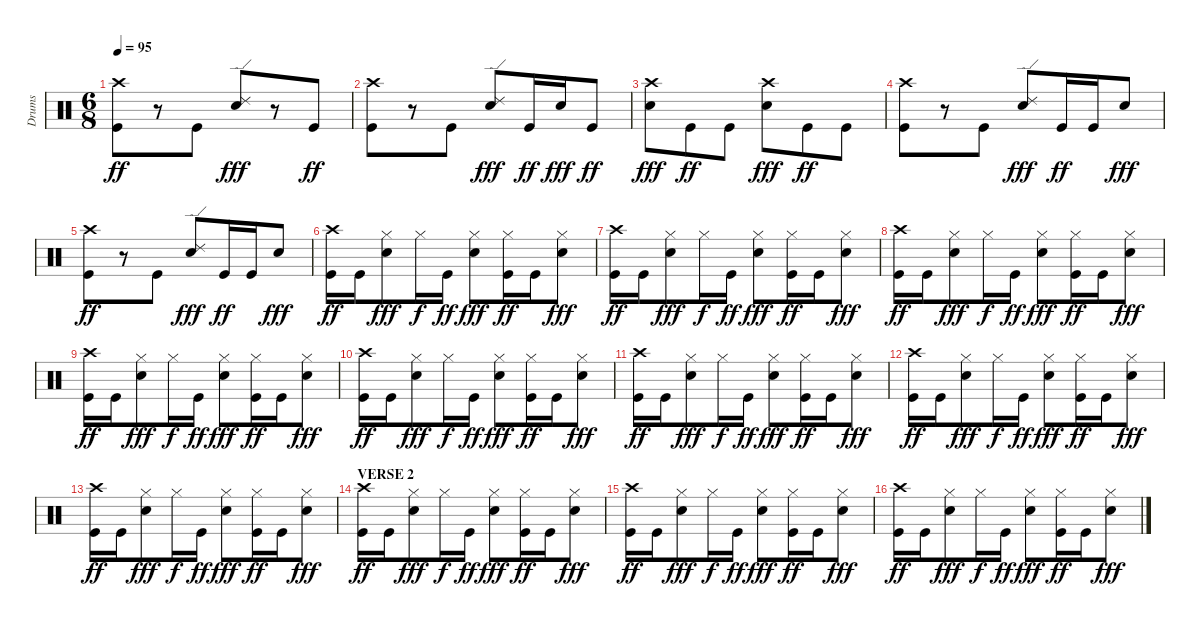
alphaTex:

\track ("Drums" "Drums") {instrument percussion}
\staff {score}
\articulation defaults
\ts (6 8)
\tempo 95
\clef neutral
\ks c
("Crash high (hit)" "Kick (hit)").8{dy ff} r.8 "Kick (hit)".8 ("Ride (edge) 2" "Electric Snare (hit)").8{dy fff} r.8 "Kick (hit)".8{dy ff} |
("Crash high (hit)" "Kick (hit)").8 r.8 "Kick (hit)".8 ("Ride (edge) 2" "Electric Snare (hit)").8{dy fff} "Kick (hit)".16{dy ff} "Electric Snare (hit)".16{dy fff} "Kick (hit)".8{dy ff} |
("Crash high (hit)" "Electric Snare (hit)").8{dy fff} "Kick (hit)".8{dy ff} "Kick (hit)".8 ("Crash high (hit)" "Electric Snare (hit)").8{dy fff} "Kick (hit)".8{dy ff} "Kick (hit)".8 |
("Crash high (hit)" "Kick (hit)").8 r.8 "Kick (hit)".8 ("Ride (edge) 2" "Electric Snare (hit)").8{dy fff} "Kick (hit)".16{dy ff} "Kick (hit)".16 "Electric Snare (hit)".8{dy fff} |
("Crash high (hit)" "Kick (hit)").8{dy ff} r.8 "Kick (hit)".8 ("Ride (edge) 2" "Electric Snare (hit)").8{dy fff} "Kick (hit)".16{dy ff} "Kick (hit)".16 "Electric Snare (hit)".8{dy fff} |
("Crash high (hit)" "Kick (hit)").16{dy ff} "Kick (hit)".16 ("Hi-Hat (closed)" "Electric Snare (hit)").8{dy fff} "Hi-Hat (closed)".16{dy f} "Kick (hit)".16{dy ff} ("Hi-Hat (closed)" "Electric Snare (hit)").8{dy fff} ("Hi-Hat (closed)" "Kick (hit)").16{dy ff} "Kick (hit)".16 ("Hi-Hat (closed)" "Electric Snare (hit)").8{dy fff} |
("Crash high (hit)" "Kick (hit)").16{dy ff} "Kick (hit)".16 ("Hi-Hat (closed)" "Electric Snare (hit)").8{dy fff} "Hi-Hat (closed)".16{dy f} "Kick (hit)".16{dy ff} ("Hi-Hat (closed)" "Electric Snare (hit)").8{dy fff} ("Hi-Hat (closed)" "Kick (hit)").16{dy ff} "Kick (hit)".16 ("Hi-Hat (closed)" "Electric Snare (hit)").8{dy fff} |
("Crash high (hit)" "Kick (hit)").16{dy ff} "Kick (hit)".16 ("Hi-Hat (closed)" "Electric Snare (hit)").8{dy fff} "Hi-Hat (closed)".16{dy f} "Kick (hit)".16{dy ff} ("Hi-Hat (closed)" "Electric Snare (hit)").8{dy fff} ("Hi-Hat (closed)" "Kick (hit)").16{dy ff} "Kick (hit)".16 ("Hi-Hat (closed)" "Electric Snare (hit)").8{dy fff} |
("Crash high (hit)" "Kick (hit)").16{dy ff} "Kick (hit)".16 ("Hi-Hat (closed)" "Electric Snare (hit)").8{dy fff} "Hi-Hat (closed)".16{dy f} "Kick (hit)".16{dy ff} ("Hi-Hat (closed)" "Electric Snare (hit)").8{dy fff} ("Hi-Hat (closed)" "Kick (hit)").16{dy ff} "Kick (hit)".16 ("Hi-Hat (closed)" "Electric Snare (hit)").8{dy fff} |
("Crash high (hit)" "Kick (hit)").16{dy ff} "Kick (hit)".16 ("Hi-Hat (closed)" "Electric Snare (hit)").8{dy fff} "Hi-Hat (closed)".16{dy f} "Kick (hit)".16{dy ff} ("Hi-Hat (closed)" "Electric Snare (hit)").8{dy fff} ("Hi-Hat (closed)" "Kick (hit)").16{dy ff} "Kick (hit)".16 ("Hi-Hat (closed)" "Electric Snare (hit)").8{dy fff} |
("Crash high (hit)" "Kick (hit)").16{dy ff} "Kick (hit)".16 ("Hi-Hat (closed)" "Electric Snare (hit)").8{dy fff} "Hi-Hat (closed)".16{dy f} "Kick (hit)".16{dy ff} ("Hi-Hat (closed)" "Electric Snare (hit)").8{dy fff} ("Hi-Hat (closed)" "Kick (hit)").16{dy ff} "Kick (hit)".16 ("Hi-Hat (closed)" "Electric Snare (hit)").8{dy fff} |
("Crash high (hit)" "Kick (hit)").16{dy ff} "Kick (hit)".16 ("Hi-Hat (closed)" "Electric Snare (hit)").8{dy fff} "Hi-Hat (closed)".16{dy f} "Kick (hit)".16{dy ff} ("Hi-Hat (closed)" "Electric Snare (hit)").8{dy fff} ("Hi-Hat (closed)" "Kick (hit)").16{dy ff} "Kick (hit)".16 ("Hi-Hat (closed)" "Electric Snare (hit)").8{dy fff} |
("Crash high (hit)" "Kick (hit)").16{dy ff} "Kick (hit)".16 ("Hi-Hat (closed)" "Electric Snare (hit)").8{dy fff} "Hi-Hat (closed)".16{dy f} "Kick (hit)".16{dy ff} ("Hi-Hat (closed)" "Electric Snare (hit)").8{dy fff} ("Hi-Hat (closed)" "Kick (hit)").16{dy ff} "Kick (hit)".16 ("Hi-Hat (closed)" "Electric Snare (hit)").8{dy fff} |
\section ("" "VERSE 2")
("Crash high (hit)" "Kick (hit)").16{dy ff} "Kick (hit)".16 ("Hi-Hat (closed)" "Electric Snare (hit)").8{dy fff} "Hi-Hat (closed)".16{dy f} "Kick (hit)".16{dy ff} ("Hi-Hat (closed)" "Electric Snare (hit)").8{dy fff} ("Hi-Hat (closed)" "Kick (hit)").16{dy ff} "Kick (hit)".16 ("Hi-Hat (closed)" "Electric Snare (hit)").8{dy fff} |
("Crash high (hit)" "Kick (hit)").16{dy ff} "Kick (hit)".16 ("Hi-Hat (closed)" "Electric Snare (hit)").8{dy fff} "Hi-Hat (closed)".16{dy f} "Kick (hit)".16{dy ff} ("Hi-Hat (closed)" "Electric Snare (hit)").8{dy fff} ("Hi-Hat (closed)" "Kick (hit)").16{dy ff} "Kick (hit)".16 ("Hi-Hat (closed)" "Electric Snare (hit)").8{dy fff} |
("Crash high (hit)" "Kick (hit)").16{dy ff} "Kick (hit)".16 ("Hi-Hat (closed)" "Electric Snare (hit)").8{dy fff} "Hi-Hat (closed)".16{dy f} "Kick (hit)".16{dy ff} ("Hi-Hat (closed)" "Electric Snare (hit)").8{dy fff} ("Hi-Hat (closed)" "Kick (hit)").16{dy ff} "Kick (hit)".16 ("Hi-Hat (closed)" "Electric Snare (hit)").8{dy fff}
